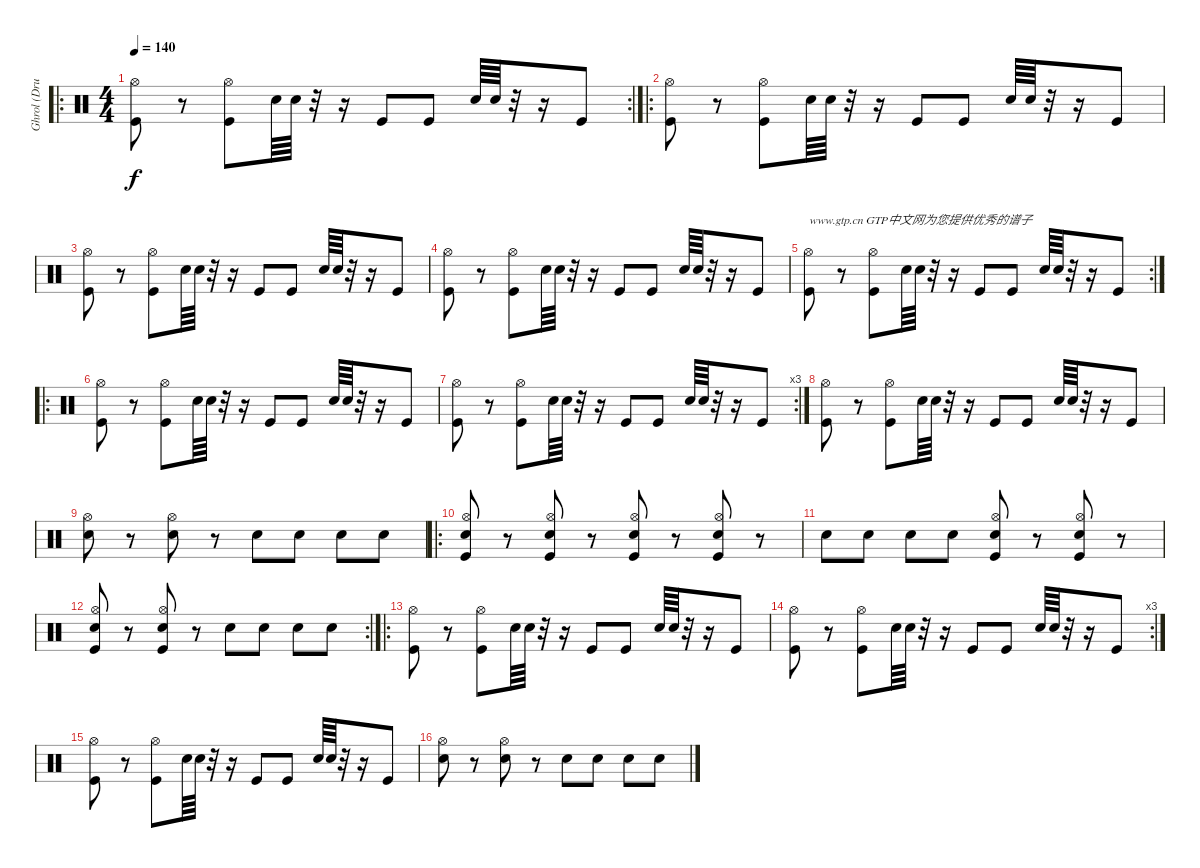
\track ("Ghrol (Drums)" "Ghrol (Dru") {instrument percussion}
\staff {score}
\articulation defaults
\ro
\rc 2
\ts (4 4)
\tempo 140
\clef neutral
\ks c
("Kick (hit)" "Hi-Hat (open)").8{dy f} r.8 ("Kick (hit)" "Hi-Hat (open)").8 "Snare (hit) 2".64 "Snare (hit) 2".64 r.32 r.16 "Kick (hit)".8 "Kick (hit)".8 "Snare (hit) 2".64 "Snare (hit) 2".64 r.32 r.16 "Kick (hit)".8 |
\ro
("Kick (hit)" "Hi-Hat (open)").8 r.8 ("Kick (hit)" "Hi-Hat (open)").8 "Snare (hit) 2".64 "Snare (hit) 2".64 r.32 r.16 "Kick (hit)".8 "Kick (hit)".8 "Snare (hit) 2".64 "Snare (hit) 2".64 r.32 r.16 "Kick (hit)".8 |
("Kick (hit)" "Hi-Hat (open)").8 r.8 ("Kick (hit)" "Hi-Hat (open)").8 "Snare (hit) 2".64 "Snare (hit) 2".64 r.32 r.16 "Kick (hit)".8 "Kick (hit)".8 "Snare (hit) 2".64 "Snare (hit) 2".64 r.32 r.16 "Kick (hit)".8 |
("Kick (hit)" "Hi-Hat (open)").8 r.8 ("Kick (hit)" "Hi-Hat (open)").8 "Snare (hit) 2".64 "Snare (hit) 2".64 r.32 r.16 "Kick (hit)".8 "Kick (hit)".8 "Snare (hit) 2".64 "Snare (hit) 2".64 r.32 r.16 "Kick (hit)".8 |
\rc 2
("Kick (hit)" "Hi-Hat (open)").8{txt "www.gtp.cn GTP中文网为您提供优秀的谱子"} r.8 ("Kick (hit)" "Hi-Hat (open)").8 "Snare (hit) 2".64 "Snare (hit) 2".64 r.32 r.16 "Kick (hit)".8 "Kick (hit)".8 "Snare (hit) 2".64 "Snare (hit) 2".64 r.32 r.16 "Kick (hit)".8 |
\ro
("Kick (hit)" "Hi-Hat (open)").8 r.8 ("Kick (hit)" "Hi-Hat (open)").8 "Snare (hit) 2".64 "Snare (hit) 2".64 r.32 r.16 "Kick (hit)".8 "Kick (hit)".8 "Snare (hit) 2".64 "Snare (hit) 2".64 r.32 r.16 "Kick (hit)".8 |
\rc 3
("Kick (hit)" "Hi-Hat (open)").8 r.8 ("Kick (hit)" "Hi-Hat (open)").8 "Snare (hit) 2".64 "Snare (hit) 2".64 r.32 r.16 "Kick (hit)".8 "Kick (hit)".8 "Snare (hit) 2".64 "Snare (hit) 2".64 r.32 r.16 "Kick (hit)".8 |
("Kick (hit)" "Hi-Hat (open)").8 r.8 ("Kick (hit)" "Hi-Hat (open)").8 "Snare (hit) 2".64 "Snare (hit) 2".64 r.32 r.16 "Kick (hit)".8 "Kick (hit)".8 "Snare (hit) 2".64 "Snare (hit) 2".64 r.32 r.16 "Kick (hit)".8 |
("Snare (hit) 2" "Hi-Hat (open)").8 r.8 ("Snare (hit) 2" "Hi-Hat (open)").8 r.8 "Snare (hit) 2".8 "Snare (hit) 2".8 "Snare (hit) 2".8 "Snare (hit) 2".8 |
\ro
("Snare (hit) 2" "Hi-Hat (open)" "Kick (hit)").8 r.8 ("Snare (hit) 2" "Hi-Hat (open)" "Kick (hit)").8 r.8 ("Snare (hit) 2" "Hi-Hat (open)" "Kick (hit)").8 r.8 ("Snare (hit) 2" "Hi-Hat (open)" "Kick (hit)").8 r.8 |
"Snare (hit) 2".8 "Snare (hit) 2".8 "Snare (hit) 2".8 "Snare (hit) 2".8 ("Snare (hit) 2" "Hi-Hat (open)" "Kick (hit)").8 r.8 ("Snare (hit) 2" "Hi-Hat (open)" "Kick (hit)").8 r.8 |
\rc 2
("Snare (hit) 2" "Hi-Hat (open)" "Kick (hit)").8 r.8 ("Snare (hit) 2" "Hi-Hat (open)" "Kick (hit)").8 r.8 "Snare (hit) 2".8 "Snare (hit) 2".8 "Snare (hit) 2".8 "Snare (hit) 2".8 |
\ro
("Kick (hit)" "Hi-Hat (open)").8 r.8 ("Kick (hit)" "Hi-Hat (open)").8 "Snare (hit) 2".64 "Snare (hit) 2".64 r.32 r.16 "Kick (hit)".8 "Kick (hit)".8 "Snare (hit) 2".64 "Snare (hit) 2".64 r.32 r.16 "Kick (hit)".8 |
\rc 3
("Kick (hit)" "Hi-Hat (open)").8 r.8 ("Kick (hit)" "Hi-Hat (open)").8 "Snare (hit) 2".64 "Snare (hit) 2".64 r.32 r.16 "Kick (hit)".8 "Kick (hit)".8 "Snare (hit) 2".64 "Snare (hit) 2".64 r.32 r.16 "Kick (hit)".8 |
("Kick (hit)" "Hi-Hat (open)").8 r.8 ("Kick (hit)" "Hi-Hat (open)").8 "Snare (hit) 2".64 "Snare (hit) 2".64 r.32 r.16 "Kick (hit)".8 "Kick (hit)".8 "Snare (hit) 2".64 "Snare (hit) 2".64 r.32 r.16 "Kick (hit)".8 |
("Snare (hit) 2" "Hi-Hat (open)").8 r.8 ("Snare (hit) 2" "Hi-Hat (open)").8 r.8 "Snare (hit) 2".8 "Snare (hit) 2".8 "Snare (hit) 2".8 "Snare (hit) 2".8
